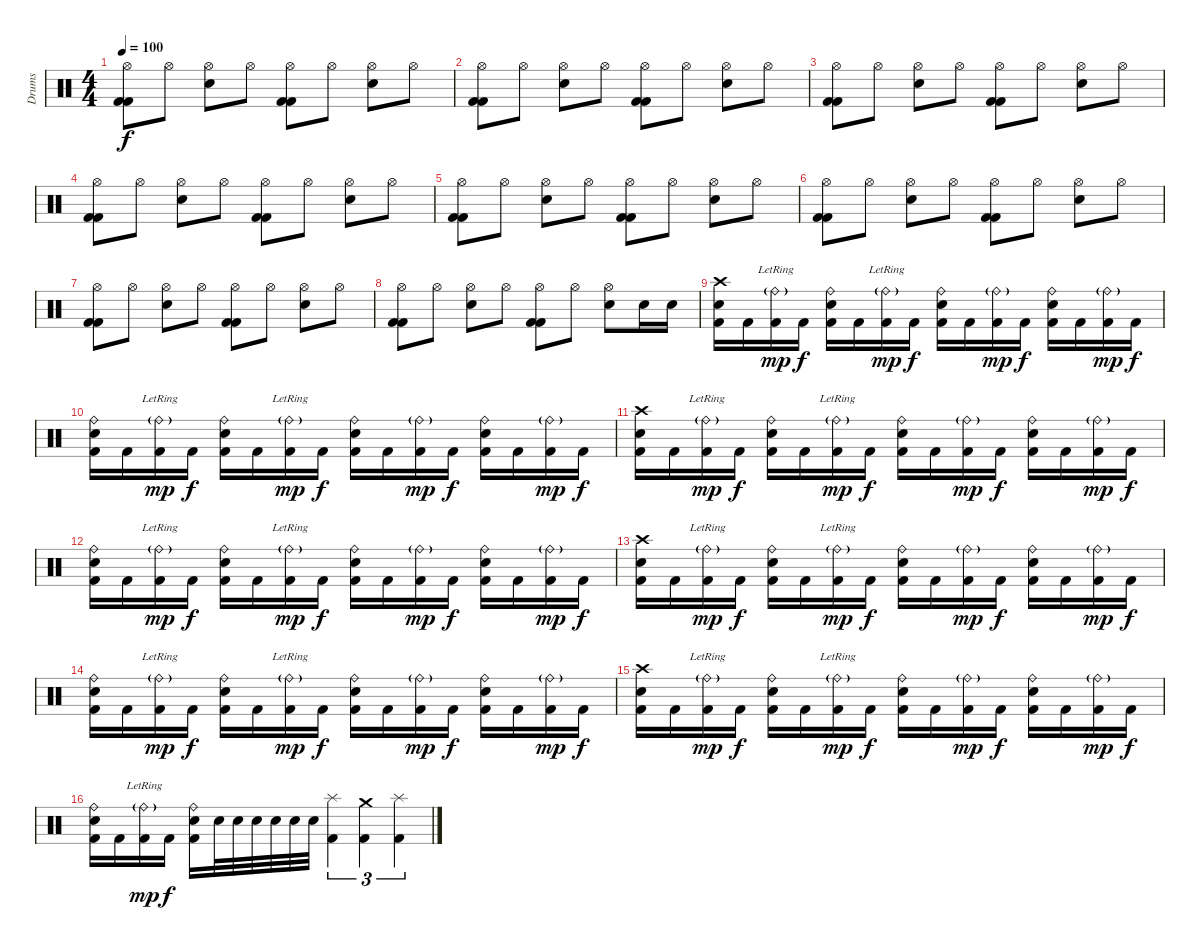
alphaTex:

\track ("Drums" "Drums") {instrument percussion}
\staff {score}
\articulation defaults
\ts (4 4)
\tempo 100
\clef neutral
\ks c
("Hi-Hat (open)" "Kick (hit) 2" "Kick (hit) 2").8{dy f} "Hi-Hat (open)".8 ("Hi-Hat (open)" "Electric Snare (hit)").8 "Hi-Hat (open)".8 ("Hi-Hat (open)" "Kick (hit) 2" "Kick (hit) 2").8 "Hi-Hat (open)".8 ("Hi-Hat (open)" "Electric Snare (hit)").8 "Hi-Hat (open)".8 |
("Hi-Hat (open)" "Kick (hit) 2" "Kick (hit) 2").8 "Hi-Hat (open)".8 ("Hi-Hat (open)" "Electric Snare (hit)").8 "Hi-Hat (open)".8 ("Hi-Hat (open)" "Kick (hit) 2" "Kick (hit) 2").8 "Hi-Hat (open)".8 ("Hi-Hat (open)" "Electric Snare (hit)").8 "Hi-Hat (open)".8 |
("Hi-Hat (open)" "Kick (hit) 2" "Kick (hit) 2").8 "Hi-Hat (open)".8 ("Hi-Hat (open)" "Electric Snare (hit)").8 "Hi-Hat (open)".8 ("Hi-Hat (open)" "Kick (hit) 2" "Kick (hit) 2").8 "Hi-Hat (open)".8 ("Hi-Hat (open)" "Electric Snare (hit)").8 "Hi-Hat (open)".8 |
("Hi-Hat (open)" "Kick (hit) 2" "Kick (hit) 2").8 "Hi-Hat (open)".8 ("Hi-Hat (open)" "Electric Snare (hit)").8 "Hi-Hat (open)".8 ("Hi-Hat (open)" "Kick (hit) 2" "Kick (hit) 2").8 "Hi-Hat (open)".8 ("Hi-Hat (open)" "Electric Snare (hit)").8 "Hi-Hat (open)".8 |
("Hi-Hat (open)" "Kick (hit) 2" "Kick (hit) 2").8 "Hi-Hat (open)".8 ("Hi-Hat (open)" "Electric Snare (hit)").8 "Hi-Hat (open)".8 ("Hi-Hat (open)" "Kick (hit) 2" "Kick (hit) 2").8 "Hi-Hat (open)".8 ("Hi-Hat (open)" "Electric Snare (hit)").8 "Hi-Hat (open)".8 |
("Hi-Hat (open)" "Kick (hit) 2" "Kick (hit) 2").8 "Hi-Hat (open)".8 ("Hi-Hat (open)" "Electric Snare (hit)").8 "Hi-Hat (open)".8 ("Hi-Hat (open)" "Kick (hit) 2" "Kick (hit) 2").8 "Hi-Hat (open)".8 ("Hi-Hat (open)" "Electric Snare (hit)").8 "Hi-Hat (open)".8 |
("Hi-Hat (open)" "Kick (hit) 2" "Kick (hit) 2").8 "Hi-Hat (open)".8 ("Hi-Hat (open)" "Electric Snare (hit)").8 "Hi-Hat (open)".8 ("Hi-Hat (open)" "Kick (hit) 2" "Kick (hit) 2").8 "Hi-Hat (open)".8 ("Hi-Hat (open)" "Electric Snare (hit)").8 "Hi-Hat (open)".8 |
("Hi-Hat (open)" "Kick (hit) 2" "Kick (hit) 2").8 "Hi-Hat (open)".8 ("Hi-Hat (open)" "Electric Snare (hit)").8 "Hi-Hat (open)".8 ("Hi-Hat (open)" "Kick (hit) 2" "Kick (hit) 2").8 "Hi-Hat (open)".8 ("Hi-Hat (open)" "Electric Snare (hit)").8 "Electric Snare (hit)".16 "Electric Snare (hit)".16 |
("Crash high (hit)" "Electric Snare (hit)" "Kick (hit) 2").16 "Kick (hit) 2".16 ("Ride (bell)"{g lr} "Kick (hit) 2").16{dy mp} "Kick (hit) 2".16{dy f} ("Ride (bell)" "Electric Snare (hit)" "Kick (hit) 2").16 "Kick (hit) 2".16 ("Ride (bell)"{g lr} "Kick (hit) 2").16{dy mp} "Kick (hit) 2".16{dy f} ("Ride (bell)" "Electric Snare (hit)" "Kick (hit) 2").16 "Kick (hit) 2".16 ("Ride (bell)"{g} "Kick (hit) 2").16{dy mp} "Kick (hit) 2".16{dy f} ("Ride (bell)" "Electric Snare (hit)" "Kick (hit) 2").16 "Kick (hit) 2".16 ("Ride (bell)"{g} "Kick (hit) 2").16{dy mp} "Kick (hit) 2".16{dy f} |
("Ride (bell)" "Electric Snare (hit)" "Kick (hit) 2").16 "Kick (hit) 2".16 ("Ride (bell)"{g lr} "Kick (hit) 2").16{dy mp} "Kick (hit) 2".16{dy f} ("Ride (bell)" "Electric Snare (hit)" "Kick (hit) 2").16 "Kick (hit) 2".16 ("Ride (bell)"{g lr} "Kick (hit) 2").16{dy mp} "Kick (hit) 2".16{dy f} ("Ride (bell)" "Electric Snare (hit)" "Kick (hit) 2").16 "Kick (hit) 2".16 ("Ride (bell)"{g} "Kick (hit) 2").16{dy mp} "Kick (hit) 2".16{dy f} ("Ride (bell)" "Electric Snare (hit)" "Kick (hit) 2").16 "Kick (hit) 2".16 ("Ride (bell)"{g} "Kick (hit) 2").16{dy mp} "Kick (hit) 2".16{dy f} |
("Crash high (hit)" "Electric Snare (hit)" "Kick (hit) 2").16 "Kick (hit) 2".16 ("Ride (bell)"{g lr} "Kick (hit) 2").16{dy mp} "Kick (hit) 2".16{dy f} ("Ride (bell)" "Electric Snare (hit)" "Kick (hit) 2").16 "Kick (hit) 2".16 ("Ride (bell)"{g lr} "Kick (hit) 2").16{dy mp} "Kick (hit) 2".16{dy f} ("Ride (bell)" "Electric Snare (hit)" "Kick (hit) 2").16 "Kick (hit) 2".16 ("Ride (bell)"{g} "Kick (hit) 2").16{dy mp} "Kick (hit) 2".16{dy f} ("Ride (bell)" "Electric Snare (hit)" "Kick (hit) 2").16 "Kick (hit) 2".16 ("Ride (bell)"{g} "Kick (hit) 2").16{dy mp} "Kick (hit) 2".16{dy f} |
("Ride (bell)" "Electric Snare (hit)" "Kick (hit) 2").16 "Kick (hit) 2".16 ("Ride (bell)"{g lr} "Kick (hit) 2").16{dy mp} "Kick (hit) 2".16{dy f} ("Ride (bell)" "Electric Snare (hit)" "Kick (hit) 2").16 "Kick (hit) 2".16 ("Ride (bell)"{g lr} "Kick (hit) 2").16{dy mp} "Kick (hit) 2".16{dy f} ("Ride (bell)" "Electric Snare (hit)" "Kick (hit) 2").16 "Kick (hit) 2".16 ("Ride (bell)"{g} "Kick (hit) 2").16{dy mp} "Kick (hit) 2".16{dy f} ("Ride (bell)" "Electric Snare (hit)" "Kick (hit) 2").16 "Kick (hit) 2".16 ("Ride (bell)"{g} "Kick (hit) 2").16{dy mp} "Kick (hit) 2".16{dy f} |
("Crash high (hit)" "Electric Snare (hit)" "Kick (hit) 2").16 "Kick (hit) 2".16 ("Ride (bell)"{g lr} "Kick (hit) 2").16{dy mp} "Kick (hit) 2".16{dy f} ("Ride (bell)" "Electric Snare (hit)" "Kick (hit) 2").16 "Kick (hit) 2".16 ("Ride (bell)"{g lr} "Kick (hit) 2").16{dy mp} "Kick (hit) 2".16{dy f} ("Ride (bell)" "Electric Snare (hit)" "Kick (hit) 2").16 "Kick (hit) 2".16 ("Ride (bell)"{g} "Kick (hit) 2").16{dy mp} "Kick (hit) 2".16{dy f} ("Ride (bell)" "Electric Snare (hit)" "Kick (hit) 2").16 "Kick (hit) 2".16 ("Ride (bell)"{g} "Kick (hit) 2").16{dy mp} "Kick (hit) 2".16{dy f} |
("Ride (bell)" "Electric Snare (hit)" "Kick (hit) 2").16 "Kick (hit) 2".16 ("Ride (bell)"{g lr} "Kick (hit) 2").16{dy mp} "Kick (hit) 2".16{dy f} ("Ride (bell)" "Electric Snare (hit)" "Kick (hit) 2").16 "Kick (hit) 2".16 ("Ride (bell)"{g lr} "Kick (hit) 2").16{dy mp} "Kick (hit) 2".16{dy f} ("Ride (bell)" "Electric Snare (hit)" "Kick (hit) 2").16 "Kick (hit) 2".16 ("Ride (bell)"{g} "Kick (hit) 2").16{dy mp} "Kick (hit) 2".16{dy f} ("Ride (bell)" "Electric Snare (hit)" "Kick (hit) 2").16 "Kick (hit) 2".16 ("Ride (bell)"{g} "Kick (hit) 2").16{dy mp} "Kick (hit) 2".16{dy f} |
("Crash high (hit)" "Electric Snare (hit)" "Kick (hit) 2").16 "Kick (hit) 2".16 ("Ride (bell)"{g lr} "Kick (hit) 2").16{dy mp} "Kick (hit) 2".16{dy f} ("Ride (bell)" "Electric Snare (hit)" "Kick (hit) 2").16 "Kick (hit) 2".16 ("Ride (bell)"{g lr} "Kick (hit) 2").16{dy mp} "Kick (hit) 2".16{dy f} ("Ride (bell)" "Electric Snare (hit)" "Kick (hit) 2").16 "Kick (hit) 2".16 ("Ride (bell)"{g} "Kick (hit) 2").16{dy mp} "Kick (hit) 2".16{dy f} ("Ride (bell)" "Electric Snare (hit)" "Kick (hit) 2").16 "Kick (hit) 2".16 ("Ride (bell)"{g} "Kick (hit) 2").16{dy mp} "Kick (hit) 2".16{dy f} |
("Ride (bell)" "Electric Snare (hit)" "Kick (hit) 2").16 "Kick (hit) 2".16 ("Ride (bell)"{g lr} "Kick (hit) 2").16{dy mp} "Kick (hit) 2".16{dy f} ("Ride (bell)" "Electric Snare (hit)" "Kick (hit) 2").16 "Electric Snare (hit)".32 "Electric Snare (hit)".32 "Electric Snare (hit)".32 "Electric Snare (hit)".32 "Electric Snare (hit)".32 "Electric Snare (hit)".32 ("Splash (hit)" "Kick (hit) 2").4{tu (3 2)} ("Crash medium (hit)" "Kick (hit) 2").4{tu (3 2)} ("Splash (hit)" "Kick (hit) 2").4{tu (3 2)}
